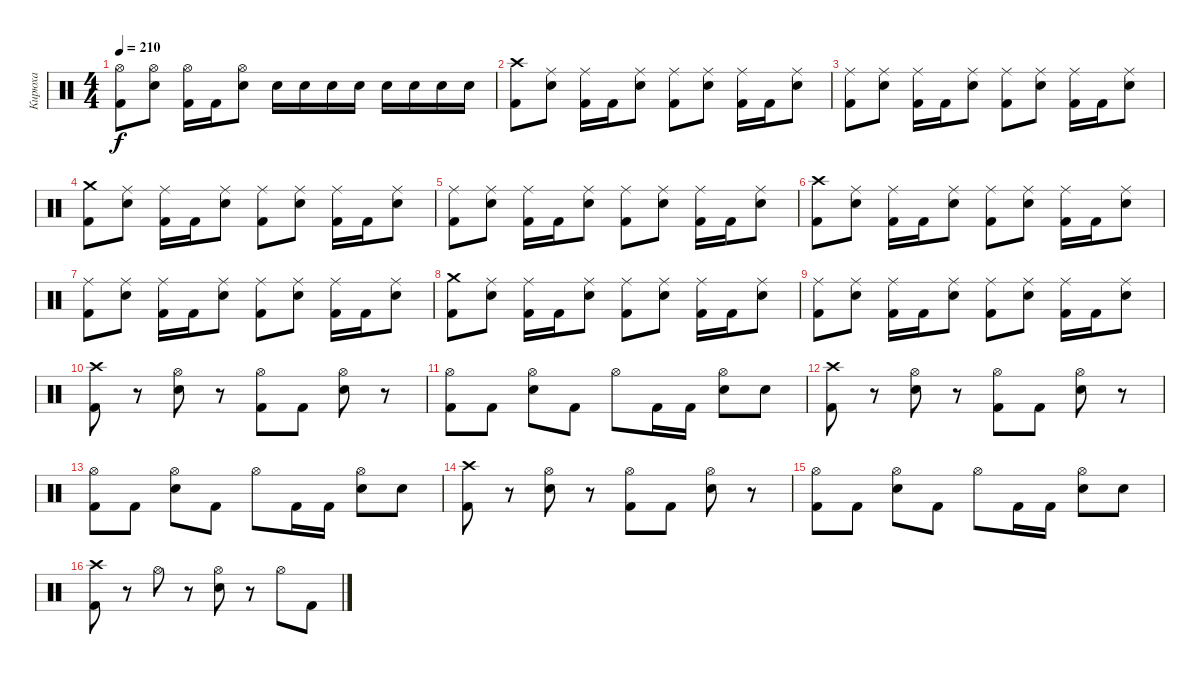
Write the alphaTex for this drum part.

\track ("Кирюха" "Кирюха") {instrument percussion}
\staff {score}
\articulation defaults
\ts (4 4)
\tempo 210
\clef neutral
\ks c
("Kick (hit) 2" "Hi-Hat (open)").8{dy f} ("Electric Snare (hit)" "Hi-Hat (open)").8 ("Kick (hit) 2" "Hi-Hat (open)").16 "Kick (hit) 2".16 ("Electric Snare (hit)" "Hi-Hat (open)").8 "Electric Snare (hit)".16 "Electric Snare (hit)".16 "Electric Snare (hit)".16 "Electric Snare (hit)".16 "Electric Snare (hit)".16 "Electric Snare (hit)".16 "Electric Snare (hit)".16 "Electric Snare (hit)".16 |
("Kick (hit) 2" "Crash high (hit)").8 ("Electric Snare (hit)" "Ride (middle)").8 ("Kick (hit) 2" "Ride (middle)").16 "Kick (hit) 2".16 ("Electric Snare (hit)" "Ride (middle)").8 ("Kick (hit) 2" "Ride (middle)").8 ("Electric Snare (hit)" "Ride (middle)").8 ("Kick (hit) 2" "Ride (middle)").16 "Kick (hit) 2".16 ("Electric Snare (hit)" "Ride (middle)").8 |
("Kick (hit) 2" "Ride (middle)").8 ("Electric Snare (hit)" "Ride (middle)").8 ("Kick (hit) 2" "Ride (middle)").16 "Kick (hit) 2".16 ("Electric Snare (hit)" "Ride (middle)").8 ("Kick (hit) 2" "Ride (middle)").8 ("Electric Snare (hit)" "Ride (middle)").8 ("Kick (hit) 2" "Ride (middle)").16 "Kick (hit) 2".16 ("Electric Snare (hit)" "Ride (middle)").8 |
("Kick (hit) 2" "Crash medium (hit)").8 ("Electric Snare (hit)" "Ride (middle)").8 ("Kick (hit) 2" "Ride (middle)").16 "Kick (hit) 2".16 ("Electric Snare (hit)" "Ride (middle)").8 ("Kick (hit) 2" "Ride (middle)").8 ("Electric Snare (hit)" "Ride (middle)").8 ("Kick (hit) 2" "Ride (middle)").16 "Kick (hit) 2".16 ("Electric Snare (hit)" "Ride (middle)").8 |
("Kick (hit) 2" "Ride (middle)").8 ("Electric Snare (hit)" "Ride (middle)").8 ("Kick (hit) 2" "Ride (middle)").16 "Kick (hit) 2".16 ("Electric Snare (hit)" "Ride (middle)").8 ("Kick (hit) 2" "Ride (middle)").8 ("Electric Snare (hit)" "Ride (middle)").8 ("Kick (hit) 2" "Ride (middle)").16 "Kick (hit) 2".16 ("Electric Snare (hit)" "Ride (middle)").8 |
("Kick (hit) 2" "Crash high (hit)").8 ("Electric Snare (hit)" "Ride (middle)").8 ("Kick (hit) 2" "Ride (middle)").16 "Kick (hit) 2".16 ("Electric Snare (hit)" "Ride (middle)").8 ("Kick (hit) 2" "Ride (middle)").8 ("Electric Snare (hit)" "Ride (middle)").8 ("Kick (hit) 2" "Ride (middle)").16 "Kick (hit) 2".16 ("Electric Snare (hit)" "Ride (middle)").8 |
("Kick (hit) 2" "Ride (middle)").8 ("Electric Snare (hit)" "Ride (middle)").8 ("Kick (hit) 2" "Ride (middle)").16 "Kick (hit) 2".16 ("Electric Snare (hit)" "Ride (middle)").8 ("Kick (hit) 2" "Ride (middle)").8 ("Electric Snare (hit)" "Ride (middle)").8 ("Kick (hit) 2" "Ride (middle)").16 "Kick (hit) 2".16 ("Electric Snare (hit)" "Ride (middle)").8 |
("Kick (hit) 2" "Crash medium (hit)").8 ("Electric Snare (hit)" "Ride (middle)").8 ("Kick (hit) 2" "Ride (middle)").16 "Kick (hit) 2".16 ("Electric Snare (hit)" "Ride (middle)").8 ("Kick (hit) 2" "Ride (middle)").8 ("Electric Snare (hit)" "Ride (middle)").8 ("Kick (hit) 2" "Ride (middle)").16 "Kick (hit) 2".16 ("Electric Snare (hit)" "Ride (middle)").8 |
("Kick (hit) 2" "Ride (middle)").8 ("Electric Snare (hit)" "Ride (middle)").8 ("Kick (hit) 2" "Ride (middle)").16 "Kick (hit) 2".16 ("Electric Snare (hit)" "Ride (middle)").8 ("Kick (hit) 2" "Ride (middle)").8 ("Electric Snare (hit)" "Ride (middle)").8 ("Kick (hit) 2" "Ride (middle)").16 "Kick (hit) 2".16 ("Electric Snare (hit)" "Ride (middle)").8 |
("Kick (hit) 2" "Crash high (hit)").8 r.8 ("Electric Snare (hit)" "Hi-Hat (open)").8 r.8 ("Kick (hit) 2" "Hi-Hat (open)").8 "Kick (hit) 2".8 ("Electric Snare (hit)" "Hi-Hat (open)").8 r.8 |
("Kick (hit) 2" "Hi-Hat (open)").8 "Kick (hit) 2".8 ("Electric Snare (hit)" "Hi-Hat (open)").8 "Kick (hit) 2".8 "Hi-Hat (open)".8 "Kick (hit) 2".16 "Kick (hit) 2".16 ("Electric Snare (hit)" "Hi-Hat (open)").8 "Electric Snare (hit)".8 |
("Kick (hit) 2" "Crash high (hit)").8 r.8 ("Electric Snare (hit)" "Hi-Hat (open)").8 r.8 ("Kick (hit) 2" "Hi-Hat (open)").8 "Kick (hit) 2".8 ("Electric Snare (hit)" "Hi-Hat (open)").8 r.8 |
("Kick (hit) 2" "Hi-Hat (open)").8 "Kick (hit) 2".8 ("Electric Snare (hit)" "Hi-Hat (open)").8 "Kick (hit) 2".8 "Hi-Hat (open)".8 "Kick (hit) 2".16 "Kick (hit) 2".16 ("Electric Snare (hit)" "Hi-Hat (open)").8 "Electric Snare (hit)".8 |
("Kick (hit) 2" "Crash high (hit)").8 r.8 ("Electric Snare (hit)" "Hi-Hat (open)").8 r.8 ("Kick (hit) 2" "Hi-Hat (open)").8 "Kick (hit) 2".8 ("Electric Snare (hit)" "Hi-Hat (open)").8 r.8 |
("Kick (hit) 2" "Hi-Hat (open)").8 "Kick (hit) 2".8 ("Electric Snare (hit)" "Hi-Hat (open)").8 "Kick (hit) 2".8 "Hi-Hat (open)".8 "Kick (hit) 2".16 "Kick (hit) 2".16 ("Electric Snare (hit)" "Hi-Hat (open)").8 "Electric Snare (hit)".8 |
("Kick (hit) 2" "Crash high (hit)").8 r.8 "Hi-Hat (open)".8 r.8 ("Electric Snare (hit)" "Hi-Hat (open)").8 r.8 "Hi-Hat (open)".8 "Kick (hit) 2".8
